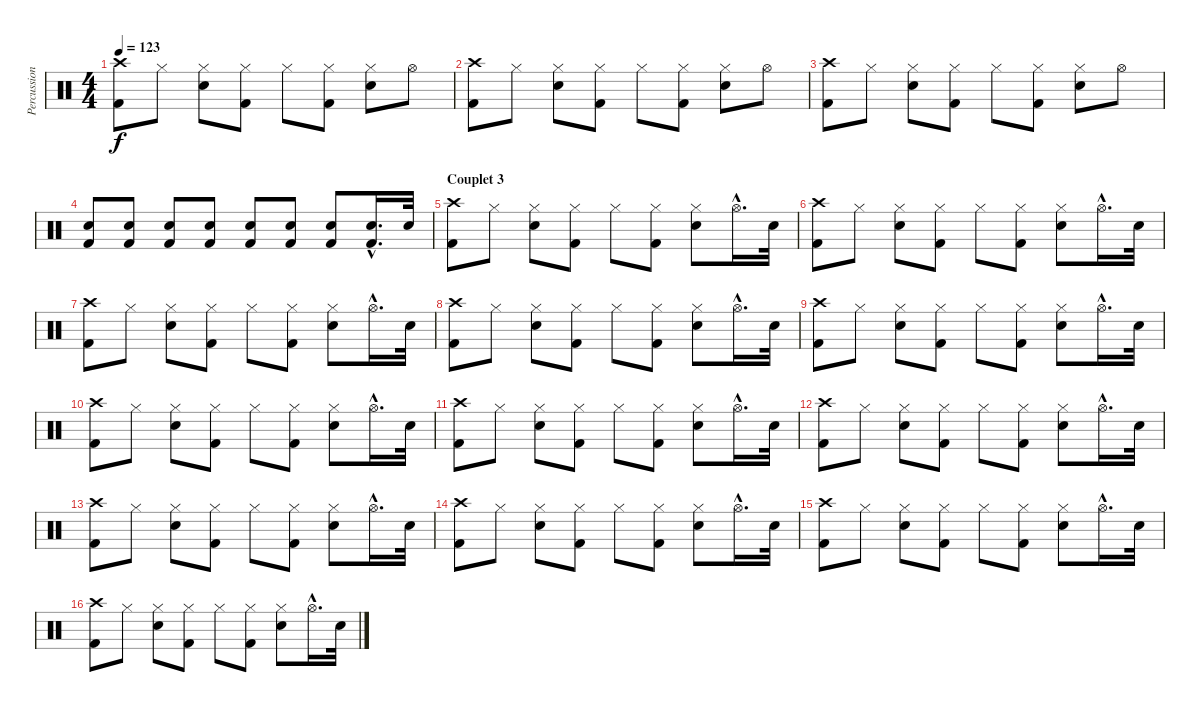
\track ("Percussions" "Percussion") {instrument percussion}
\staff {score}
\articulation defaults
\ts (4 4)
\tempo 123
\clef neutral
\ks c
("Crash high (hit)" "Kick (hit) 2").8{dy f} "Hi-Hat (closed)".8 ("Hi-Hat (closed)" "Snare (hit) 2").8 ("Hi-Hat (closed)" "Kick (hit) 2").8 "Hi-Hat (closed)".8 ("Hi-Hat (closed)" "Kick (hit) 2").8 ("Hi-Hat (closed)" "Snare (hit) 2").8 "Hi-Hat (open)".8 |
("Crash high (hit)" "Kick (hit) 2").8 "Hi-Hat (closed)".8 ("Hi-Hat (closed)" "Snare (hit) 2").8 ("Hi-Hat (closed)" "Kick (hit) 2").8 "Hi-Hat (closed)".8 ("Hi-Hat (closed)" "Kick (hit) 2").8 ("Hi-Hat (closed)" "Snare (hit) 2").8 "Hi-Hat (open)".8 |
("Crash high (hit)" "Kick (hit) 2").8 "Hi-Hat (closed)".8 ("Hi-Hat (closed)" "Snare (hit) 2").8 ("Hi-Hat (closed)" "Kick (hit) 2").8 "Hi-Hat (closed)".8 ("Hi-Hat (closed)" "Kick (hit) 2").8 ("Hi-Hat (closed)" "Snare (hit) 2").8 "Hi-Hat (open)".8 |
("Snare (hit) 2" "Kick (hit) 2").8 ("Snare (hit) 2" "Kick (hit) 2").8 ("Snare (hit) 2" "Kick (hit) 2").8 ("Snare (hit) 2" "Kick (hit) 2").8 ("Snare (hit) 2" "Kick (hit) 2").8 ("Snare (hit) 2" "Kick (hit) 2").8 ("Snare (hit) 2" "Kick (hit) 2").8 ("Snare (hit) 2"{hac} "Kick (hit) 2"{hac}).16{d} "Snare (hit) 2".32 |
\section ("" "Couplet 3")
("Crash high (hit)" "Kick (hit) 2").8 "Hi-Hat (closed)".8 ("Hi-Hat (closed)" "Snare (hit) 2").8 ("Hi-Hat (closed)" "Kick (hit) 2").8 "Hi-Hat (closed)".8 ("Hi-Hat (closed)" "Kick (hit) 2").8 ("Hi-Hat (closed)" "Snare (hit) 2").8 "Hi-Hat (open)"{hac}.16{d} "Snare (hit) 2".32 |
("Crash high (hit)" "Kick (hit) 2").8 "Hi-Hat (closed)".8 ("Hi-Hat (closed)" "Snare (hit) 2").8 ("Hi-Hat (closed)" "Kick (hit) 2").8 "Hi-Hat (closed)".8 ("Hi-Hat (closed)" "Kick (hit) 2").8 ("Hi-Hat (closed)" "Snare (hit) 2").8 "Hi-Hat (open)"{hac}.16{d} "Snare (hit) 2".32 |
("Crash high (hit)" "Kick (hit) 2").8 "Hi-Hat (closed)".8 ("Hi-Hat (closed)" "Snare (hit) 2").8 ("Hi-Hat (closed)" "Kick (hit) 2").8 "Hi-Hat (closed)".8 ("Hi-Hat (closed)" "Kick (hit) 2").8 ("Hi-Hat (closed)" "Snare (hit) 2").8 "Hi-Hat (open)"{hac}.16{d} "Snare (hit) 2".32 |
("Crash high (hit)" "Kick (hit) 2").8 "Hi-Hat (closed)".8 ("Hi-Hat (closed)" "Snare (hit) 2").8 ("Hi-Hat (closed)" "Kick (hit) 2").8 "Hi-Hat (closed)".8 ("Hi-Hat (closed)" "Kick (hit) 2").8 ("Hi-Hat (closed)" "Snare (hit) 2").8 "Hi-Hat (open)"{hac}.16{d} "Snare (hit) 2".32 |
("Crash high (hit)" "Kick (hit) 2").8 "Hi-Hat (closed)".8 ("Hi-Hat (closed)" "Snare (hit) 2").8 ("Hi-Hat (closed)" "Kick (hit) 2").8 "Hi-Hat (closed)".8 ("Hi-Hat (closed)" "Kick (hit) 2").8 ("Hi-Hat (closed)" "Snare (hit) 2").8 "Hi-Hat (open)"{hac}.16{d} "Snare (hit) 2".32 |
("Crash high (hit)" "Kick (hit) 2").8 "Hi-Hat (closed)".8 ("Hi-Hat (closed)" "Snare (hit) 2").8 ("Hi-Hat (closed)" "Kick (hit) 2").8 "Hi-Hat (closed)".8 ("Hi-Hat (closed)" "Kick (hit) 2").8 ("Hi-Hat (closed)" "Snare (hit) 2").8 "Hi-Hat (open)"{hac}.16{d} "Snare (hit) 2".32 |
("Crash high (hit)" "Kick (hit) 2").8 "Hi-Hat (closed)".8 ("Hi-Hat (closed)" "Snare (hit) 2").8 ("Hi-Hat (closed)" "Kick (hit) 2").8 "Hi-Hat (closed)".8 ("Hi-Hat (closed)" "Kick (hit) 2").8 ("Hi-Hat (closed)" "Snare (hit) 2").8 "Hi-Hat (open)"{hac}.16{d} "Snare (hit) 2".32 |
("Crash high (hit)" "Kick (hit) 2").8 "Hi-Hat (closed)".8 ("Hi-Hat (closed)" "Snare (hit) 2").8 ("Hi-Hat (closed)" "Kick (hit) 2").8 "Hi-Hat (closed)".8 ("Hi-Hat (closed)" "Kick (hit) 2").8 ("Hi-Hat (closed)" "Snare (hit) 2").8 "Hi-Hat (open)"{hac}.16{d} "Snare (hit) 2".32 |
("Crash high (hit)" "Kick (hit) 2").8 "Hi-Hat (closed)".8 ("Hi-Hat (closed)" "Snare (hit) 2").8 ("Hi-Hat (closed)" "Kick (hit) 2").8 "Hi-Hat (closed)".8 ("Hi-Hat (closed)" "Kick (hit) 2").8 ("Hi-Hat (closed)" "Snare (hit) 2").8 "Hi-Hat (open)"{hac}.16{d} "Snare (hit) 2".32 |
("Crash high (hit)" "Kick (hit) 2").8 "Hi-Hat (closed)".8 ("Hi-Hat (closed)" "Snare (hit) 2").8 ("Hi-Hat (closed)" "Kick (hit) 2").8 "Hi-Hat (closed)".8 ("Hi-Hat (closed)" "Kick (hit) 2").8 ("Hi-Hat (closed)" "Snare (hit) 2").8 "Hi-Hat (open)"{hac}.16{d} "Snare (hit) 2".32 |
("Crash high (hit)" "Kick (hit) 2").8 "Hi-Hat (closed)".8 ("Hi-Hat (closed)" "Snare (hit) 2").8 ("Hi-Hat (closed)" "Kick (hit) 2").8 "Hi-Hat (closed)".8 ("Hi-Hat (closed)" "Kick (hit) 2").8 ("Hi-Hat (closed)" "Snare (hit) 2").8 "Hi-Hat (open)"{hac}.16{d} "Snare (hit) 2".32 |
("Crash high (hit)" "Kick (hit) 2").8 "Hi-Hat (closed)".8 ("Hi-Hat (closed)" "Snare (hit) 2").8 ("Hi-Hat (closed)" "Kick (hit) 2").8 "Hi-Hat (closed)".8 ("Hi-Hat (closed)" "Kick (hit) 2").8 ("Hi-Hat (closed)" "Snare (hit) 2").8 "Hi-Hat (open)"{hac}.16{d} "Snare (hit) 2".32
